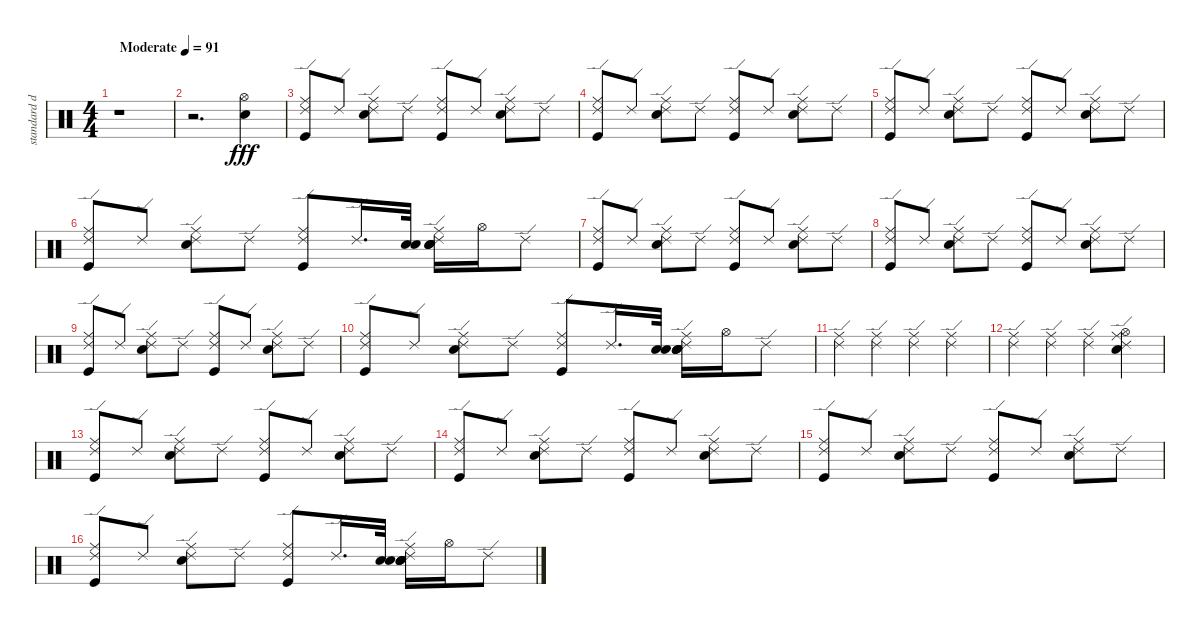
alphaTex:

\track ("standard drums" "standard d") {instrument percussion}
\staff {score}
\articulation defaults
\ts (4 4)
\tempo (91 "Moderate")
\clef neutral
\ks c
r.1{dy fff} |
r.2{d} ("Snare (hit) 2" "Hi-Hat (open)").4 |
("Ride (edge) 2" "Ride (middle)" "Kick (hit)").8 "Ride (edge) 2".8 ("Ride (edge) 2" "Ride (middle)" "Snare (hit) 2").8 "Ride (edge) 2".8 ("Ride (edge) 2" "Ride (middle)" "Kick (hit)").8 "Ride (edge) 2".8 ("Ride (edge) 2" "Ride (middle)" "Snare (hit) 2").8 "Ride (edge) 2".8 |
("Ride (middle)" "Ride (edge) 2" "Kick (hit)").8 "Ride (edge) 2".8 ("Ride (edge) 2" "Ride (middle)" "Snare (hit) 2").8 "Ride (edge) 2".8 ("Ride (edge) 2" "Ride (middle)" "Kick (hit)").8 "Ride (edge) 2".8 ("Ride (middle)" "Ride (edge) 2" "Snare (hit) 2").8 "Ride (edge) 2".8 |
("Ride (edge) 2" "Ride (middle)" "Kick (hit)").8 "Ride (edge) 2".8 ("Ride (edge) 2" "Ride (middle)" "Snare (hit) 2").8 "Ride (edge) 2".8 ("Ride (edge) 2" "Ride (middle)" "Kick (hit)").8 "Ride (edge) 2".8 ("Ride (edge) 2" "Ride (middle)" "Snare (hit) 2").8 "Ride (edge) 2".8 |
("Ride (middle)" "Ride (edge) 2" "Kick (hit)").8 "Ride (edge) 2".8 ("Ride (edge) 2" "Ride (middle)" "Snare (hit) 2").8 "Ride (edge) 2".8 ("Ride (edge) 2" "Ride (middle)" "Kick (hit)").8 "Ride (edge) 2".16{d} ("Electric Snare (hit)" "Snare (hit) 2").32 ("Ride (middle)" "Ride (edge) 2" "Snare (hit) 2" "Snare (hit) 2" "Electric Snare (hit)").16 "Hi-Hat (open)".16 "Ride (edge) 2".8 |
("Ride (edge) 2" "Ride (middle)" "Kick (hit)").8 "Ride (edge) 2".8 ("Ride (edge) 2" "Ride (middle)" "Snare (hit) 2").8 "Ride (edge) 2".8 ("Ride (edge) 2" "Ride (middle)" "Kick (hit)").8 "Ride (edge) 2".8 ("Ride (edge) 2" "Ride (middle)" "Snare (hit) 2").8 "Ride (edge) 2".8 |
("Ride (middle)" "Ride (edge) 2" "Kick (hit)").8 "Ride (edge) 2".8 ("Ride (edge) 2" "Ride (middle)" "Snare (hit) 2").8 "Ride (edge) 2".8 ("Ride (edge) 2" "Ride (middle)" "Kick (hit)").8 "Ride (edge) 2".8 ("Ride (middle)" "Ride (edge) 2" "Snare (hit) 2").8 "Ride (edge) 2".8 |
("Ride (edge) 2" "Ride (middle)" "Kick (hit)").8 "Ride (edge) 2".8 ("Ride (edge) 2" "Ride (middle)" "Snare (hit) 2").8 "Ride (edge) 2".8 ("Ride (edge) 2" "Ride (middle)" "Kick (hit)").8 "Ride (edge) 2".8 ("Ride (edge) 2" "Ride (middle)" "Snare (hit) 2").8 "Ride (edge) 2".8 |
("Ride (middle)" "Ride (edge) 2" "Kick (hit)").8 "Ride (edge) 2".8 ("Ride (edge) 2" "Ride (middle)" "Snare (hit) 2").8 "Ride (edge) 2".8 ("Ride (edge) 2" "Ride (middle)" "Kick (hit)").8 "Ride (edge) 2".16{d} ("Electric Snare (hit)" "Snare (hit) 2").32 ("Ride (middle)" "Ride (edge) 2" "Snare (hit) 2" "Snare (hit) 2" "Electric Snare (hit)").16 "Hi-Hat (open)".16 "Ride (edge) 2".8 |
("Ride (middle)" "Ride (edge) 2").4 ("Ride (edge) 2" "Ride (middle)").4 ("Ride (edge) 2" "Ride (middle)").4 ("Ride (edge) 2" "Ride (middle)").4 |
("Ride (edge) 2" "Ride (middle)").4 ("Ride (edge) 2" "Ride (middle)").4 ("Ride (edge) 2" "Ride (middle)").4 ("Ride (edge) 2" "Ride (middle)" "Snare (hit) 2" "Hi-Hat (open)").4 |
("Ride (edge) 2" "Ride (middle)" "Kick (hit)").8 "Ride (edge) 2".8 ("Ride (edge) 2" "Ride (middle)" "Snare (hit) 2").8 "Ride (edge) 2".8 ("Ride (edge) 2" "Ride (middle)" "Kick (hit)").8 "Ride (edge) 2".8 ("Ride (edge) 2" "Ride (middle)" "Snare (hit) 2").8 "Ride (edge) 2".8 |
("Ride (middle)" "Ride (edge) 2" "Kick (hit)").8 "Ride (edge) 2".8 ("Ride (edge) 2" "Ride (middle)" "Snare (hit) 2").8 "Ride (edge) 2".8 ("Ride (edge) 2" "Ride (middle)" "Kick (hit)").8 "Ride (edge) 2".8 ("Ride (middle)" "Ride (edge) 2" "Snare (hit) 2").8 "Ride (edge) 2".8 |
("Ride (edge) 2" "Ride (middle)" "Kick (hit)").8 "Ride (edge) 2".8 ("Ride (edge) 2" "Ride (middle)" "Snare (hit) 2").8 "Ride (edge) 2".8 ("Ride (edge) 2" "Ride (middle)" "Kick (hit)").8 "Ride (edge) 2".8 ("Ride (edge) 2" "Ride (middle)" "Snare (hit) 2").8 "Ride (edge) 2".8 |
("Ride (middle)" "Ride (edge) 2" "Kick (hit)").8 "Ride (edge) 2".8 ("Ride (edge) 2" "Ride (middle)" "Snare (hit) 2").8 "Ride (edge) 2".8 ("Ride (edge) 2" "Ride (middle)" "Kick (hit)").8 "Ride (edge) 2".16{d} ("Electric Snare (hit)" "Snare (hit) 2").32 ("Ride (middle)" "Ride (edge) 2" "Snare (hit) 2" "Snare (hit) 2" "Electric Snare (hit)").16 "Hi-Hat (open)".16 "Ride (edge) 2".8
